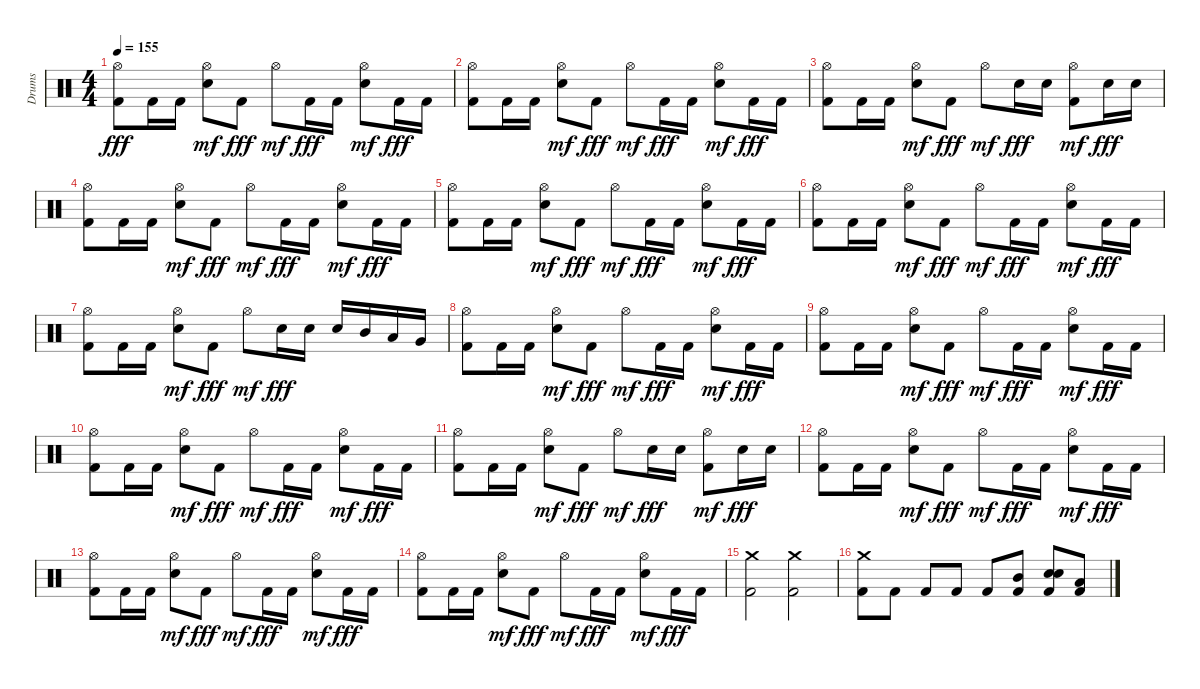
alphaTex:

\track ("Drums" "Drums") {instrument percussion}
\staff {score}
\articulation defaults
\ts (4 4)
\tempo 155
\clef neutral
\ks c
("Hi-Hat (open)" "Kick (hit) 2").8{dy fff} "Kick (hit) 2".16 "Kick (hit) 2".16 ("Electric Snare (hit)" "Hi-Hat (open)").8{dy mf} "Kick (hit) 2".8{dy fff} "Hi-Hat (open)".8{dy mf} "Kick (hit) 2".16{dy fff} "Kick (hit) 2".16 ("Electric Snare (hit)" "Hi-Hat (open)").8{dy mf} "Kick (hit) 2".16{dy fff} "Kick (hit) 2".16 |
("Hi-Hat (open)" "Kick (hit) 2").8 "Kick (hit) 2".16 "Kick (hit) 2".16 ("Electric Snare (hit)" "Hi-Hat (open)").8{dy mf} "Kick (hit) 2".8{dy fff} "Hi-Hat (open)".8{dy mf} "Kick (hit) 2".16{dy fff} "Kick (hit) 2".16 ("Electric Snare (hit)" "Hi-Hat (open)").8{dy mf} "Kick (hit) 2".16{dy fff} "Kick (hit) 2".16 |
("Hi-Hat (open)" "Kick (hit) 2").8 "Kick (hit) 2".16 "Kick (hit) 2".16 ("Electric Snare (hit)" "Hi-Hat (open)").8{dy mf} "Kick (hit) 2".8{dy fff} "Hi-Hat (open)".8{dy mf} "Electric Snare (hit)".16{dy fff} "Electric Snare (hit)".16 ("Hi-Hat (open)" "Kick (hit) 2").8{dy mf} "Electric Snare (hit)".16{dy fff} "Electric Snare (hit)".16 |
("Hi-Hat (open)" "Kick (hit) 2").8 "Kick (hit) 2".16 "Kick (hit) 2".16 ("Electric Snare (hit)" "Hi-Hat (open)").8{dy mf} "Kick (hit) 2".8{dy fff} "Hi-Hat (open)".8{dy mf} "Kick (hit) 2".16{dy fff} "Kick (hit) 2".16 ("Electric Snare (hit)" "Hi-Hat (open)").8{dy mf} "Kick (hit) 2".16{dy fff} "Kick (hit) 2".16 |
("Hi-Hat (open)" "Kick (hit) 2").8 "Kick (hit) 2".16 "Kick (hit) 2".16 ("Electric Snare (hit)" "Hi-Hat (open)").8{dy mf} "Kick (hit) 2".8{dy fff} "Hi-Hat (open)".8{dy mf} "Kick (hit) 2".16{dy fff} "Kick (hit) 2".16 ("Electric Snare (hit)" "Hi-Hat (open)").8{dy mf} "Kick (hit) 2".16{dy fff} "Kick (hit) 2".16 |
("Hi-Hat (open)" "Kick (hit) 2").8 "Kick (hit) 2".16 "Kick (hit) 2".16 ("Electric Snare (hit)" "Hi-Hat (open)").8{dy mf} "Kick (hit) 2".8{dy fff} "Hi-Hat (open)".8{dy mf} "Kick (hit) 2".16{dy fff} "Kick (hit) 2".16 ("Electric Snare (hit)" "Hi-Hat (open)").8{dy mf} "Kick (hit) 2".16{dy fff} "Kick (hit) 2".16 |
("Hi-Hat (open)" "Kick (hit) 2").8 "Kick (hit) 2".16 "Kick (hit) 2".16 ("Electric Snare (hit)" "Hi-Hat (open)").8{dy mf} "Kick (hit) 2".8{dy fff} "Hi-Hat (open)".8{dy mf} "Electric Snare (hit)".16{dy fff} "Electric Snare (hit)".16 "Electric Snare (hit)".16 "Mid Tom (hit)".16 "Low Tom (hit)".16 "Very Low Tom (hit)".16 |
("Hi-Hat (open)" "Kick (hit) 2").8 "Kick (hit) 2".16 "Kick (hit) 2".16 ("Electric Snare (hit)" "Hi-Hat (open)").8{dy mf} "Kick (hit) 2".8{dy fff} "Hi-Hat (open)".8{dy mf} "Kick (hit) 2".16{dy fff} "Kick (hit) 2".16 ("Electric Snare (hit)" "Hi-Hat (open)").8{dy mf} "Kick (hit) 2".16{dy fff} "Kick (hit) 2".16 |
("Hi-Hat (open)" "Kick (hit) 2").8 "Kick (hit) 2".16 "Kick (hit) 2".16 ("Electric Snare (hit)" "Hi-Hat (open)").8{dy mf} "Kick (hit) 2".8{dy fff} "Hi-Hat (open)".8{dy mf} "Kick (hit) 2".16{dy fff} "Kick (hit) 2".16 ("Electric Snare (hit)" "Hi-Hat (open)").8{dy mf} "Kick (hit) 2".16{dy fff} "Kick (hit) 2".16 |
("Hi-Hat (open)" "Kick (hit) 2").8 "Kick (hit) 2".16 "Kick (hit) 2".16 ("Electric Snare (hit)" "Hi-Hat (open)").8{dy mf} "Kick (hit) 2".8{dy fff} "Hi-Hat (open)".8{dy mf} "Kick (hit) 2".16{dy fff} "Kick (hit) 2".16 ("Electric Snare (hit)" "Hi-Hat (open)").8{dy mf} "Kick (hit) 2".16{dy fff} "Kick (hit) 2".16 |
("Hi-Hat (open)" "Kick (hit) 2").8 "Kick (hit) 2".16 "Kick (hit) 2".16 ("Electric Snare (hit)" "Hi-Hat (open)").8{dy mf} "Kick (hit) 2".8{dy fff} "Hi-Hat (open)".8{dy mf} "Electric Snare (hit)".16{dy fff} "Electric Snare (hit)".16 ("Hi-Hat (open)" "Kick (hit) 2").8{dy mf} "Electric Snare (hit)".16{dy fff} "Electric Snare (hit)".16 |
("Hi-Hat (open)" "Kick (hit) 2").8 "Kick (hit) 2".16 "Kick (hit) 2".16 ("Electric Snare (hit)" "Hi-Hat (open)").8{dy mf} "Kick (hit) 2".8{dy fff} "Hi-Hat (open)".8{dy mf} "Kick (hit) 2".16{dy fff} "Kick (hit) 2".16 ("Electric Snare (hit)" "Hi-Hat (open)").8{dy mf} "Kick (hit) 2".16{dy fff} "Kick (hit) 2".16 |
("Hi-Hat (open)" "Kick (hit) 2").8 "Kick (hit) 2".16 "Kick (hit) 2".16 ("Electric Snare (hit)" "Hi-Hat (open)").8{dy mf} "Kick (hit) 2".8{dy fff} "Hi-Hat (open)".8{dy mf} "Kick (hit) 2".16{dy fff} "Kick (hit) 2".16 ("Electric Snare (hit)" "Hi-Hat (open)").8{dy mf} "Kick (hit) 2".16{dy fff} "Kick (hit) 2".16 |
("Hi-Hat (open)" "Kick (hit) 2").8 "Kick (hit) 2".16 "Kick (hit) 2".16 ("Electric Snare (hit)" "Hi-Hat (open)").8{dy mf} "Kick (hit) 2".8{dy fff} "Hi-Hat (open)".8{dy mf} "Kick (hit) 2".16{dy fff} "Kick (hit) 2".16 ("Electric Snare (hit)" "Hi-Hat (open)").8{dy mf} "Kick (hit) 2".16{dy fff} "Kick (hit) 2".16 |
("Crash medium (hit)" "Kick (hit) 2").2 ("Crash medium (hit)" "Kick (hit) 2").2 |
("Crash medium (hit)" "Kick (hit) 2").8 "Kick (hit) 2".8 "Kick (hit) 2".8 "Kick (hit) 2".8 "Kick (hit) 2".8 ("Mid Tom (hit)" "Kick (hit) 2").8 ("Electric Snare (hit)" "Electric Snare (hit)" "Kick (hit) 2").8 ("Low Tom (hit)" "Kick (hit) 2").8
